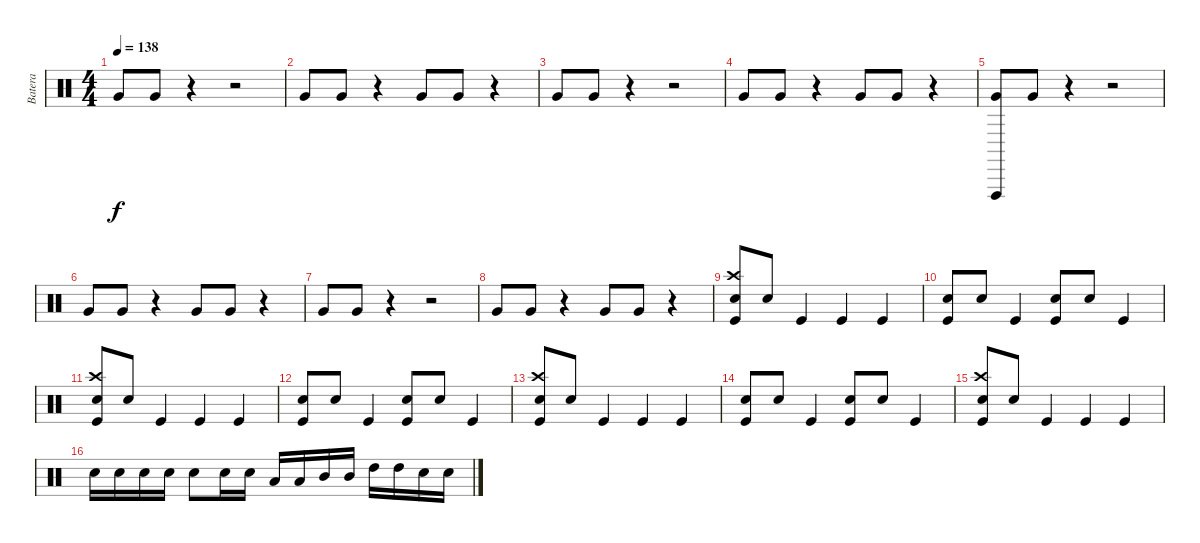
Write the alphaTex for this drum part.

\track ("Batera" "Batera") {instrument percussion}
\staff {score}
\articulation defaults
\ts (4 4)
\tempo 138
\clef neutral
\ks c "Very Low Tom (hit)".8{dy f} "Very Low Tom (hit)".8
r.4 r.2 |
"Very Low Tom (hit)".8 "Very Low Tom (hit)".8 r.4 "Very Low Tom (hit)".8 "Very Low Tom (hit)".8 r.4 |
"Very Low Tom (hit)".8 "Very Low Tom (hit)".8 r.4 r.2 |
"Very Low Tom (hit)".8 "Very Low Tom (hit)".8 r.4 "Very Low Tom (hit)".8 "Very Low Tom (hit)".8 r.4 |
("Very Low Tom (hit)" "Vibraslap (hit)").8 "Very Low Tom (hit)".8 r.4 r.2 |
"Very Low Tom (hit)".8 "Very Low Tom (hit)".8 r.4 "Very Low Tom (hit)".8 "Very Low Tom (hit)".8 r.4 |
"Very Low Tom (hit)".8 "Very Low Tom (hit)".8 r.4 r.2 |
"Very Low Tom (hit)".8 "Very Low Tom (hit)".8 r.4 "Very Low Tom (hit)".8 "Very Low Tom (hit)".8 r.4 |
("Snare (hit) 2" "Crash high (hit)" "Kick (hit)").8 "Snare (hit) 2".8 "Kick (hit)".4 "Kick (hit)".4 "Kick (hit)".4 |
("Snare (hit) 2" "Kick (hit)").8 "Snare (hit) 2".8 "Kick (hit)".4 ("Snare (hit) 2" "Kick (hit)").8 "Snare (hit) 2".8 "Kick (hit)".4 |
("Snare (hit) 2" "Crash high (hit)" "Kick (hit)").8 "Snare (hit) 2".8 "Kick (hit)".4 "Kick (hit)".4 "Kick (hit)".4 |
("Snare (hit) 2" "Kick (hit)").8 "Snare (hit) 2".8 "Kick (hit)".4 ("Snare (hit) 2" "Kick (hit)").8 "Snare (hit) 2".8 "Kick (hit)".4 |
("Snare (hit) 2" "Crash high (hit)" "Kick (hit)").8 "Snare (hit) 2".8 "Kick (hit)".4 "Kick (hit)".4 "Kick (hit)".4 |
("Snare (hit) 2" "Kick (hit)").8 "Snare (hit) 2".8 "Kick (hit)".4 ("Snare (hit) 2" "Kick (hit)").8 "Snare (hit) 2".8 "Kick (hit)".4 |
("Snare (hit) 2" "Crash high (hit)" "Kick (hit)").8 "Snare (hit) 2".8 "Kick (hit)".4 "Kick (hit)".4 "Kick (hit)".4 |
"Snare (hit) 2".16 "Snare (hit) 2".16 "Snare (hit) 2".16 "Snare (hit) 2".16 "Snare (hit) 2".8 "Snare (hit) 2".16 "Snare (hit) 2".16 "Low Tom (hit)".16 "Low Tom (hit)".16 "Mid Tom (hit)".16 "Mid Tom (hit)".16 "High Tom (hit)".16 "High Tom (hit)".16 "Snare (hit) 2".16 "Snare (hit) 2".16
